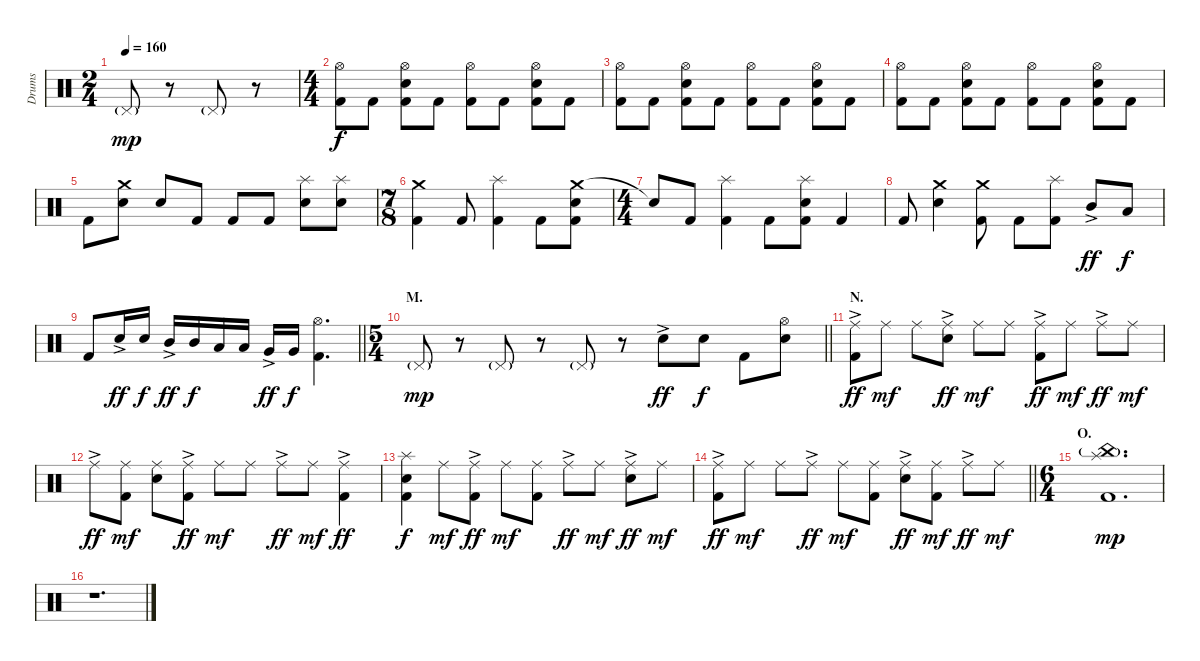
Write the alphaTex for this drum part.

\track ("Drums" "Drums") {instrument percussion}
\staff {score}
\articulation defaults
\ts (2 4)
\tempo 160
\clef neutral
\ks c "Pedal Hi-Hat (hit)"{g}.8{dy mp}
r.8 "Pedal Hi-Hat (hit)"{g}.8 r.8 |
\ts (4 4)
("Hi-Hat (open)" "Kick (hit) 2").8{dy f} "Kick (hit) 2".8 ("Hi-Hat (open)" "Electric Snare (hit)" "Kick (hit) 2").8 "Kick (hit) 2".8 ("Hi-Hat (open)" "Kick (hit) 2").8 "Kick (hit) 2".8 ("Hi-Hat (open)" "Electric Snare (hit)" "Kick (hit) 2").8 "Kick (hit) 2".8 |
("Hi-Hat (open)" "Kick (hit) 2").8 "Kick (hit) 2".8 ("Hi-Hat (open)" "Electric Snare (hit)" "Kick (hit) 2").8 "Kick (hit) 2".8 ("Hi-Hat (open)" "Kick (hit) 2").8 "Kick (hit) 2".8 ("Hi-Hat (open)" "Electric Snare (hit)" "Kick (hit) 2").8 "Kick (hit) 2".8 |
("Hi-Hat (open)" "Kick (hit) 2").8 "Kick (hit) 2".8 ("Hi-Hat (open)" "Electric Snare (hit)" "Kick (hit) 2").8 "Kick (hit) 2".8 ("Hi-Hat (open)" "Kick (hit) 2").8 "Kick (hit) 2".8 ("Hi-Hat (open)" "Electric Snare (hit)" "Kick (hit) 2").8 "Kick (hit) 2".8 |
"Kick (hit) 2".8 ("Crash medium (hit)" "Electric Snare (hit)").8 "Electric Snare (hit)".8 "Kick (hit) 2".8 "Kick (hit) 2".8 "Kick (hit) 2".8 ("Splash (hit)" "Electric Snare (hit)").8 ("Splash (hit)" "Electric Snare (hit)").8 |
\ts (7 8)
("Crash medium (hit)" "Kick (hit) 2").4 "Kick (hit) 2".8 ("Splash (hit)" "Kick (hit) 2").4 "Kick (hit) 2".8 ("Crash medium (hit)" "Electric Snare (hit)" "Kick (hit) 2").8 |
\ts (4 4)
"Snare (hit)"{t}.8 "Kick (hit) 2".8 ("Splash (hit)" "Kick (hit) 2").4 "Kick (hit) 2".8 ("Splash (hit)" "Electric Snare (hit)" "Kick (hit) 2").8 "Kick (hit) 2".4 |
"Kick (hit) 2".8 ("Crash medium (hit)" "Electric Snare (hit)").4 ("Crash medium (hit)" "Kick (hit) 2").8 "Kick (hit) 2".8 ("Splash (hit)" "Kick (hit) 2").8 "Mid Tom (hit)"{ac}.8{dy ff} "Low Tom (hit)".8{dy f} |
\barLineRight lightlight "Kick (hit) 2".8 "Electric Snare (hit)"{ac}.16{dy ff} "Electric Snare (hit)".16{dy f} "Mid Tom (hit)"{ac}.16{dy ff} "Mid Tom (hit)".16{dy f} "Low Tom (hit)".16 "Low Tom (hit)".16 "Very Low Tom (hit)"{ac}.16{dy ff} "Very Low Tom (hit)".16{dy f}
("Hi-Hat (open)" "Kick (hit) 2").4{d} |
\ts (5 4)
\section ("" "M.")
\barLineRight lightlight "Pedal Hi-Hat (hit)"{g}.8{dy mp}
r.8 "Pedal Hi-Hat (hit)"{g}.8 r.8 "Pedal Hi-Hat (hit)"{g}.8 r.8 "Electric Snare (hit)"{ac}.8{dy ff} "Electric Snare (hit)".8{dy f} "Kick (hit) 2".8 ("Hi-Hat (open)" "Electric Snare (hit)").8 |
\section ("" "N.")
("Ride (middle)"{ac} "Kick (hit) 2").8{dy ff} "Ride (middle)".8{dy mf} "Ride (middle)".8 ("Ride (middle)"{ac} "Electric Snare (hit)").8{dy ff} "Ride (middle)".8{dy mf} "Ride (middle)".8 ("Ride (middle)"{ac} "Kick (hit) 2").8{dy ff} "Ride (middle)".8{dy mf} "Ride (middle)"{ac}.8{dy ff} "Ride (middle)".8{dy mf} |
"Ride (middle)"{ac}.8{dy ff} ("Ride (middle)" "Kick (hit) 2").8{dy mf} ("Ride (middle)" "Electric Snare (hit)").8 ("Ride (middle)"{ac} "Kick (hit) 2").8{dy ff} "Ride (middle)".8{dy mf} "Ride (middle)".8 "Ride (middle)"{ac}.8{dy ff} "Ride (middle)".8{dy mf} ("Ride (middle)"{ac} "Kick (hit) 2").4{dy ff} |
("Splash (hit)" "Electric Snare (hit)" "Kick (hit) 2").4{dy f} "Ride (middle)".8{dy mf} ("Ride (middle)"{ac} "Kick (hit) 2").8{dy ff} "Ride (middle)".8{dy mf} ("Ride (middle)" "Kick (hit) 2").8 "Ride (middle)"{ac}.8{dy ff} "Ride (middle)".8{dy mf} ("Ride (middle)"{ac} "Electric Snare (hit)").8{dy ff} "Ride (middle)".8{dy mf} |
\barLineRight lightlight
("Ride (middle)"{ac} "Kick (hit) 2").8{dy ff} "Ride (middle)".8{dy mf} "Ride (middle)".8 "Ride (middle)"{ac}.8{dy ff} "Ride (middle)".8{dy mf} ("Ride (middle)" "Kick (hit) 2").8 ("Ride (middle)"{ac} "Electric Snare (hit)").8{dy ff} ("Ride (middle)" "Kick (hit) 2").8{dy mf} "Ride (middle)"{ac}.8{dy ff} "Ride (middle)".8{dy mf} |
\ts (6 4)
\section ("" "O.")
("China (hit)"{g} "Splash (hit)" "Kick (hit) 2").1{d dy mp} |
r.1{d}
